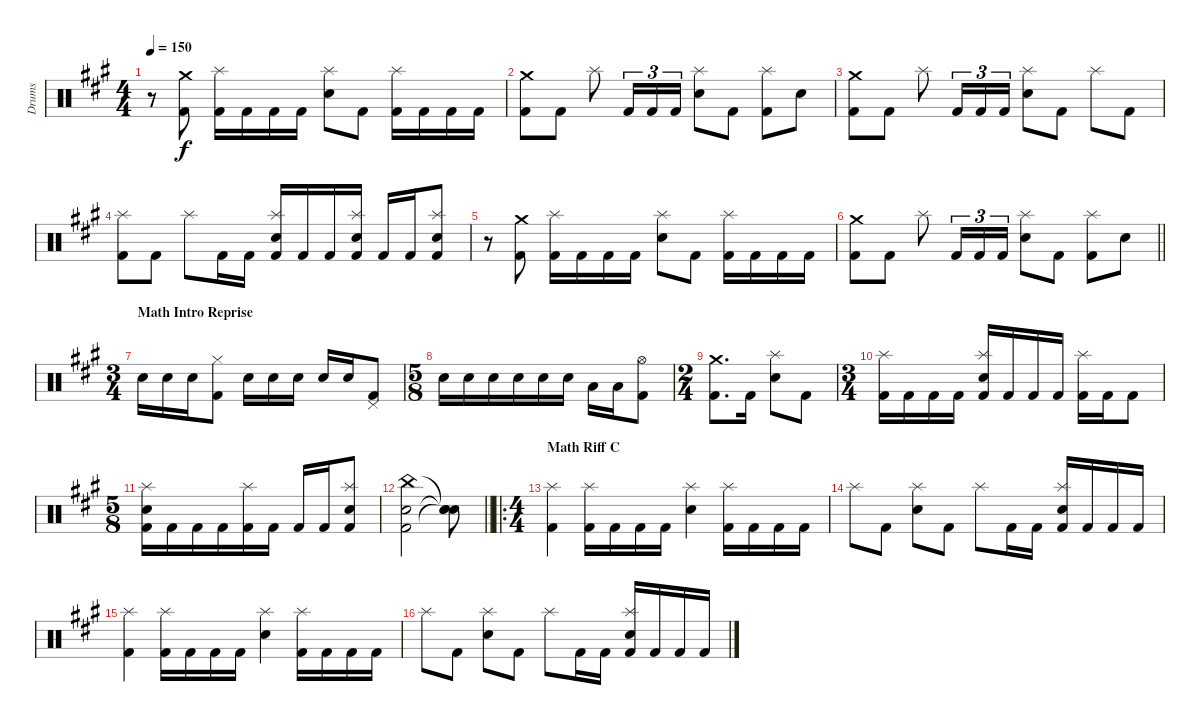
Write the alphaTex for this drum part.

\track ("Drums" "Drums") {instrument percussion}
\staff {score}
\articulation defaults
\ts (4 4)
\tempo 150
\clef neutral
\ks f#minor
r.8{dy f} ("Crash medium (hit)" "Kick (hit) 2").8 ("Splash (hit)" "Kick (hit) 2").16 "Kick (hit) 2".16 "Kick (hit) 2".16 "Kick (hit) 2".16 ("Splash (hit)" "Snare (hit) 2").8 "Kick (hit) 2".8 ("Splash (hit)" "Kick (hit) 2").16 "Kick (hit) 2".16 "Kick (hit) 2".16 "Kick (hit) 2".16 |
("Crash medium (hit)" "Kick (hit) 2").8 "Kick (hit) 2".8 "Splash (hit)".8 "Kick (hit) 2".16{tu (3 2)} "Kick (hit) 2".16{tu (3 2)} "Kick (hit) 2".16{tu (3 2)} ("Splash (hit)" "Snare (hit) 2").8 "Kick (hit) 2".8 ("Splash (hit)" "Kick (hit) 2").8 "Snare (hit) 2".8 |
("Crash medium (hit)" "Kick (hit) 2").8 "Kick (hit) 2".8 "Splash (hit)".8 "Kick (hit) 2".16{tu (3 2)} "Kick (hit) 2".16{tu (3 2)} "Kick (hit) 2".16{tu (3 2)} ("Splash (hit)" "Snare (hit) 2").8 "Kick (hit) 2".8 "Splash (hit)".8 "Kick (hit) 2".8 |
("Splash (hit)" "Kick (hit) 2").8 "Kick (hit) 2".8 "Splash (hit)".8 "Kick (hit) 2".16 "Kick (hit) 2".16 ("Splash (hit)" "Snare (hit) 2" "Kick (hit) 2").16 "Kick (hit) 2".16 "Kick (hit) 2".16 ("Splash (hit)" "Snare (hit) 2" "Kick (hit) 2").16 "Kick (hit) 2".16 "Kick (hit) 2".16 ("Splash (hit)" "Snare (hit) 2" "Kick (hit) 2").8 |
r.8 ("Crash medium (hit)" "Kick (hit) 2").8 ("Splash (hit)" "Kick (hit) 2").16 "Kick (hit) 2".16 "Kick (hit) 2".16 "Kick (hit) 2".16 ("Splash (hit)" "Snare (hit) 2").8 "Kick (hit) 2".8 ("Splash (hit)" "Kick (hit) 2").16 "Kick (hit) 2".16 "Kick (hit) 2".16 "Kick (hit) 2".16 |
\barLineRight lightlight
("Crash medium (hit)" "Kick (hit) 2").8 "Kick (hit) 2".8 "Splash (hit)".8 "Kick (hit) 2".16{tu (3 2)} "Kick (hit) 2".16{tu (3 2)} "Kick (hit) 2".16{tu (3 2)} ("Splash (hit)" "Snare (hit) 2").8 "Kick (hit) 2".8 ("Splash (hit)" "Kick (hit) 2").8 "Snare (hit) 2".8 |
\ts (3 4)
\section ("" "Math Intro Reprise")
"Snare (hit) 2".16 "Snare (hit) 2".16 "Snare (hit) 2".16 ("Hi-Hat (closed)" "Kick (hit) 2").8 "Snare (hit) 2".16 "Snare (hit) 2".16 "Snare (hit) 2".16 "Snare (hit) 2".16 "Snare (hit) 2".16 ("Pedal Hi-Hat (hit)" "Kick (hit) 2").8 |
\ts (5 8)
"Snare (hit) 2".16 "Snare (hit) 2".16 "Snare (hit) 2".16 "Snare (hit) 2".16 "Snare (hit) 2".16 "Snare (hit) 2".16 "Low Tom (hit)".16 "Low Tom (hit)".16 ("Hi-Hat (open)" "Kick (hit) 2").8 |
\ts (2 4)
("Crash medium (hit)" "Kick (hit) 2").8{d} "Kick (hit) 2".16 ("Splash (hit)" "Snare (hit) 2").8 "Kick (hit) 2".8 |
\ts (3 4)
("Splash (hit)" "Kick (hit) 2").16 "Kick (hit) 2".16 "Kick (hit) 2".16 "Kick (hit) 2".16 ("Splash (hit)" "Snare (hit) 2" "Kick (hit) 2").16 "Kick (hit) 2".16 "Kick (hit) 2".16 "Kick (hit) 2".16 ("Splash (hit)" "Kick (hit) 2").16 "Kick (hit) 2".16 "Kick (hit) 2".8 |
\ts (5 8)
("Splash (hit)" "Snare (hit) 2" "Kick (hit) 2").16 "Kick (hit) 2".16 "Kick (hit) 2".16 "Kick (hit) 2".16 ("Splash (hit)" "Kick (hit) 2").16 "Kick (hit) 2".16 "Kick (hit) 2".16 "Kick (hit) 2".16 ("Splash (hit)" "Snare (hit) 2" "Kick (hit) 2").8 |
\barLineRight lightlight
("China (hit)" "Snare (hit) 2" "Kick (hit) 2").2 ("Snare (hit)"{t} "Snare (hit)"{t} "Snare (hit)"{t}).8 |
\ro
\ts (4 4)
\section ("" "Math Riff C")
("Splash (hit)" "Kick (hit) 2").4 ("Splash (hit)" "Kick (hit) 2").16 "Kick (hit) 2".16 "Kick (hit) 2".16 "Kick (hit) 2".16 ("Splash (hit)" "Snare (hit) 2").4 ("Splash (hit)" "Kick (hit) 2").16 "Kick (hit) 2".16 "Kick (hit) 2".16 "Kick (hit) 2".16 |
"Splash (hit)".8 "Kick (hit) 2".8 ("Splash (hit)" "Snare (hit) 2").8 "Kick (hit) 2".8 "Splash (hit)".8 "Kick (hit) 2".16 "Kick (hit) 2".16 ("Splash (hit)" "Snare (hit) 2" "Kick (hit) 2").16 "Kick (hit) 2".16 "Kick (hit) 2".16 "Kick (hit) 2".16 |
("Splash (hit)" "Kick (hit) 2").4 ("Splash (hit)" "Kick (hit) 2").16 "Kick (hit) 2".16 "Kick (hit) 2".16 "Kick (hit) 2".16 ("Splash (hit)" "Snare (hit) 2").4 ("Splash (hit)" "Kick (hit) 2").16 "Kick (hit) 2".16 "Kick (hit) 2".16 "Kick (hit) 2".16 |
"Splash (hit)".8 "Kick (hit) 2".8 ("Splash (hit)" "Snare (hit) 2").8 "Kick (hit) 2".8 "Splash (hit)".8 "Kick (hit) 2".16 "Kick (hit) 2".16 ("Splash (hit)" "Snare (hit) 2" "Kick (hit) 2").16 "Kick (hit) 2".16 "Kick (hit) 2".16 "Kick (hit) 2".16
